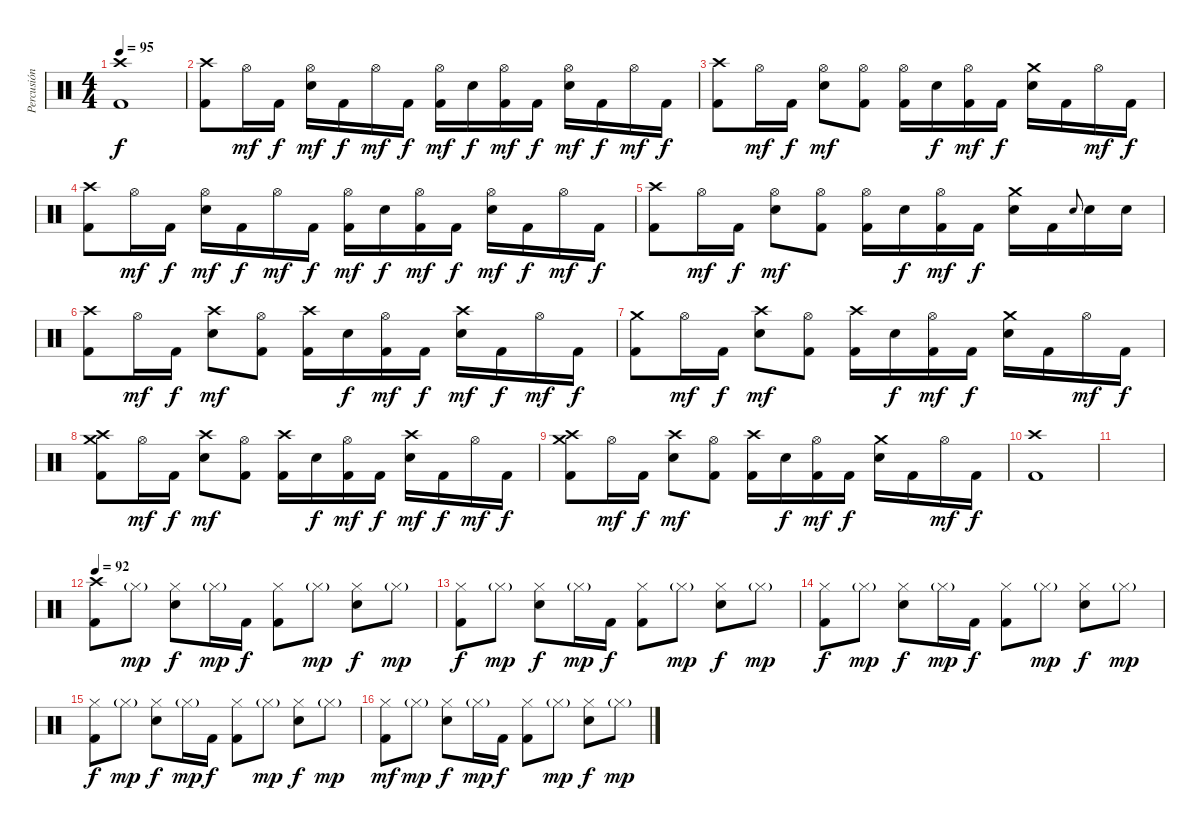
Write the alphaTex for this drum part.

\track ("Percusión" "Percusión") {instrument percussion}
\staff {score}
\articulation defaults
\ts (4 4)
\tempo 95
\clef neutral
\ks c
("Crash high (hit)" "Kick (hit) 2").1{dy f} |
("Crash high (hit)" "Kick (hit) 2").8 "Hi-Hat (open)".16{dy mf} "Kick (hit) 2".16{dy f} ("Hi-Hat (open)" "Snare (hit) 2").16{dy mf} "Kick (hit) 2".16{dy f} "Hi-Hat (open)".16{dy mf} "Kick (hit) 2".16{dy f} ("Hi-Hat (open)" "Kick (hit) 2").16{dy mf} "Snare (hit) 2".16{dy f} ("Hi-Hat (open)" "Kick (hit) 2").16{dy mf} "Kick (hit) 2".16{dy f} ("Hi-Hat (open)" "Snare (hit) 2").16{dy mf} "Kick (hit) 2".16{dy f} "Hi-Hat (open)".16{dy mf} "Kick (hit) 2".16{dy f} |
("Crash high (hit)" "Kick (hit) 2").8 "Hi-Hat (open)".16{dy mf} "Kick (hit) 2".16{dy f} ("Hi-Hat (open)" "Snare (hit) 2").8{dy mf} ("Hi-Hat (open)" "Kick (hit) 2").8 ("Hi-Hat (open)" "Kick (hit) 2").16 "Snare (hit) 2".16{dy f} ("Hi-Hat (open)" "Kick (hit) 2").16{dy mf} "Kick (hit) 2".16{dy f} ("Crash medium (hit)" "Snare (hit) 2").16 "Kick (hit) 2".16 "Hi-Hat (open)".16{dy mf} "Kick (hit) 2".16{dy f} |
("Crash high (hit)" "Kick (hit) 2").8 "Hi-Hat (open)".16{dy mf} "Kick (hit) 2".16{dy f} ("Hi-Hat (open)" "Snare (hit) 2").16{dy mf} "Kick (hit) 2".16{dy f} "Hi-Hat (open)".16{dy mf} "Kick (hit) 2".16{dy f} ("Hi-Hat (open)" "Kick (hit) 2").16{dy mf} "Snare (hit) 2".16{dy f} ("Hi-Hat (open)" "Kick (hit) 2").16{dy mf} "Kick (hit) 2".16{dy f} ("Hi-Hat (open)" "Snare (hit) 2").16{dy mf} "Kick (hit) 2".16{dy f} "Hi-Hat (open)".16{dy mf} "Kick (hit) 2".16{dy f} |
("Crash high (hit)" "Kick (hit) 2").8 "Hi-Hat (open)".16{dy mf} "Kick (hit) 2".16{dy f} ("Hi-Hat (open)" "Snare (hit) 2").8{dy mf} ("Hi-Hat (open)" "Kick (hit) 2").8 ("Hi-Hat (open)" "Kick (hit) 2").16 "Snare (hit) 2".16{dy f} ("Hi-Hat (open)" "Kick (hit) 2").16{dy mf} "Kick (hit) 2".16{dy f} ("Crash medium (hit)" "Snare (hit) 2").16 "Kick (hit) 2".16 "Snare (hit) 2".8{gr onbeat} "Snare (hit) 2".16 "Snare (hit) 2".16 |
("Crash high (hit)" "Kick (hit) 2").8 "Hi-Hat (open)".16{dy mf} "Kick (hit) 2".16{dy f} ("Crash high (hit)" "Snare (hit) 2").8{dy mf} ("Hi-Hat (open)" "Kick (hit) 2").8 ("Crash high (hit)" "Kick (hit) 2").16 "Snare (hit) 2".16{dy f} ("Hi-Hat (open)" "Kick (hit) 2").16{dy mf} "Kick (hit) 2".16{dy f} ("Crash high (hit)" "Snare (hit) 2").16{dy mf} "Kick (hit) 2".16{dy f} "Hi-Hat (open)".16{dy mf} "Kick (hit) 2".16{dy f} |
("Crash medium (hit)" "Kick (hit) 2").8 "Hi-Hat (open)".16{dy mf} "Kick (hit) 2".16{dy f} ("Crash high (hit)" "Snare (hit) 2").8{dy mf} ("Hi-Hat (open)" "Kick (hit) 2").8 ("Crash high (hit)" "Kick (hit) 2").16 "Snare (hit) 2".16{dy f} ("Hi-Hat (open)" "Kick (hit) 2").16{dy mf} "Kick (hit) 2".16{dy f} ("Crash medium (hit)" "Snare (hit) 2").16 "Kick (hit) 2".16 "Hi-Hat (open)".16{dy mf} "Kick (hit) 2".16{dy f} |
("Crash medium (hit)" "Crash high (hit)" "Kick (hit) 2").8 "Hi-Hat (open)".16{dy mf} "Kick (hit) 2".16{dy f} ("Crash high (hit)" "Snare (hit) 2").8{dy mf} ("Hi-Hat (open)" "Kick (hit) 2").8 ("Crash high (hit)" "Kick (hit) 2").16 "Snare (hit) 2".16{dy f} ("Hi-Hat (open)" "Kick (hit) 2").16{dy mf} "Kick (hit) 2".16{dy f} ("Crash high (hit)" "Snare (hit) 2").16{dy mf} "Kick (hit) 2".16{dy f} "Hi-Hat (open)".16{dy mf} "Kick (hit) 2".16{dy f} |
("Crash medium (hit)" "Crash high (hit)" "Kick (hit) 2").8 "Hi-Hat (open)".16{dy mf} "Kick (hit) 2".16{dy f} ("Crash high (hit)" "Snare (hit) 2").8{dy mf} ("Hi-Hat (open)" "Kick (hit) 2").8 ("Crash high (hit)" "Kick (hit) 2").16 "Snare (hit) 2".16{dy f} ("Hi-Hat (open)" "Kick (hit) 2").16{dy mf} "Kick (hit) 2".16{dy f} ("Crash medium (hit)" "Snare (hit) 2").16 "Kick (hit) 2".16 "Hi-Hat (open)".16{dy mf} "Kick (hit) 2".16{dy f} |
("Crash high (hit)" "Kick (hit) 2").1 |
|
\tempo 92
("Crash high (hit)" "Kick (hit) 2").8 "Hi-Hat (closed)"{g}.8{dy mp} ("Hi-Hat (closed)" "Snare (hit) 2").8{dy f} "Hi-Hat (closed)"{g}.16{dy mp} "Kick (hit) 2".16{dy f} ("Hi-Hat (closed)" "Kick (hit) 2").8 "Hi-Hat (closed)"{g}.8{dy mp} ("Hi-Hat (closed)" "Snare (hit) 2").8{dy f} "Hi-Hat (closed)"{g}.8{dy mp} |
("Hi-Hat (closed)" "Kick (hit) 2").8{dy f} "Hi-Hat (closed)"{g}.8{dy mp} ("Hi-Hat (closed)" "Snare (hit) 2").8{dy f} "Hi-Hat (closed)"{g}.16{dy mp} "Kick (hit) 2".16{dy f} ("Hi-Hat (closed)" "Kick (hit) 2").8 "Hi-Hat (closed)"{g}.8{dy mp} ("Hi-Hat (closed)" "Snare (hit) 2").8{dy f} "Hi-Hat (closed)"{g}.8{dy mp} |
("Hi-Hat (closed)" "Kick (hit) 2").8{dy f} "Hi-Hat (closed)"{g}.8{dy mp} ("Hi-Hat (closed)" "Snare (hit) 2").8{dy f} "Hi-Hat (closed)"{g}.16{dy mp} "Kick (hit) 2".16{dy f} ("Hi-Hat (closed)" "Kick (hit) 2").8 "Hi-Hat (closed)"{g}.8{dy mp} ("Hi-Hat (closed)" "Snare (hit) 2").8{dy f} "Hi-Hat (closed)"{g}.8{dy mp} |
("Hi-Hat (closed)" "Kick (hit) 2").8{dy f} "Hi-Hat (closed)"{g}.8{dy mp} ("Hi-Hat (closed)" "Snare (hit) 2").8{dy f} "Hi-Hat (closed)"{g}.16{dy mp} "Kick (hit) 2".16{dy f} ("Hi-Hat (closed)" "Kick (hit) 2").8 "Hi-Hat (closed)"{g}.8{dy mp} ("Hi-Hat (closed)" "Snare (hit) 2").8{dy f} "Hi-Hat (closed)"{g}.8{dy mp} |
("Hi-Hat (closed)" "Kick (hit) 2").8{dy mf} "Hi-Hat (closed)"{g}.8{dy mp} ("Hi-Hat (closed)" "Snare (hit) 2").8{dy f} "Hi-Hat (closed)"{g}.16{dy mp} "Kick (hit) 2".16{dy f} ("Hi-Hat (closed)" "Kick (hit) 2").8 "Hi-Hat (closed)"{g}.8{dy mp} ("Hi-Hat (closed)" "Snare (hit) 2").8{dy f} "Hi-Hat (closed)"{g}.8{dy mp}
